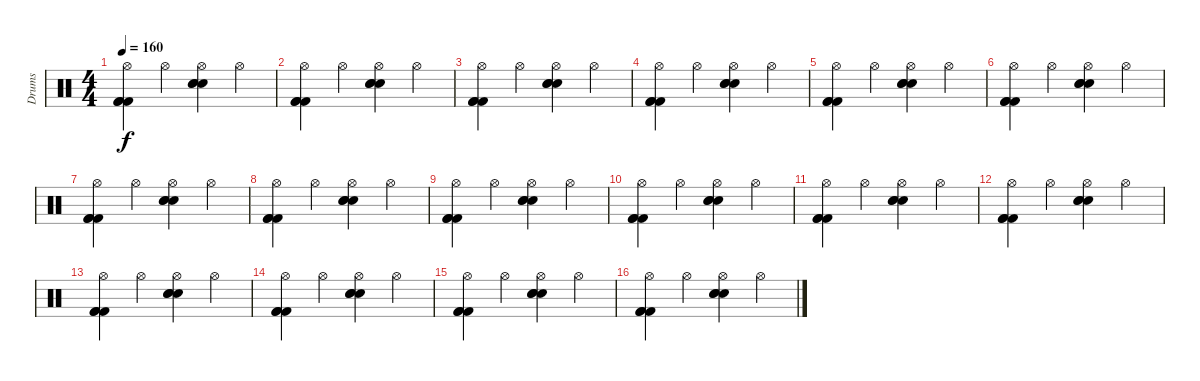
\track ("Drums" "Drums") {instrument percussion}
\staff {score}
\articulation defaults
\ts (4 4)
\tempo 160
\clef neutral
\ks c
("Hi-Hat (open)" "Kick (hit) 2" "Kick (hit) 2" "Kick (hit) 2").4{dy f} "Hi-Hat (open)".4 ("Hi-Hat (open)" "Electric Snare (hit)" "Electric Snare (hit)" "Electric Snare (hit)").4 "Hi-Hat (open)".4 |
("Hi-Hat (open)" "Kick (hit) 2" "Kick (hit) 2" "Kick (hit) 2").4 "Hi-Hat (open)".4 ("Hi-Hat (open)" "Electric Snare (hit)" "Electric Snare (hit)" "Electric Snare (hit)").4 "Hi-Hat (open)".4 |
("Hi-Hat (open)" "Kick (hit) 2" "Kick (hit) 2" "Kick (hit) 2").4 "Hi-Hat (open)".4 ("Hi-Hat (open)" "Electric Snare (hit)" "Electric Snare (hit)" "Electric Snare (hit)").4 "Hi-Hat (open)".4 |
("Hi-Hat (open)" "Kick (hit) 2" "Kick (hit) 2" "Kick (hit) 2").4 "Hi-Hat (open)".4 ("Hi-Hat (open)" "Electric Snare (hit)" "Electric Snare (hit)" "Electric Snare (hit)").4 "Hi-Hat (open)".4 |
("Hi-Hat (open)" "Kick (hit) 2" "Kick (hit) 2" "Kick (hit) 2").4 "Hi-Hat (open)".4 ("Hi-Hat (open)" "Electric Snare (hit)" "Electric Snare (hit)" "Electric Snare (hit)").4 "Hi-Hat (open)".4 |
("Hi-Hat (open)" "Kick (hit) 2" "Kick (hit) 2" "Kick (hit) 2").4 "Hi-Hat (open)".4 ("Hi-Hat (open)" "Electric Snare (hit)" "Electric Snare (hit)" "Electric Snare (hit)").4 "Hi-Hat (open)".4 |
("Hi-Hat (open)" "Kick (hit) 2" "Kick (hit) 2" "Kick (hit) 2").4 "Hi-Hat (open)".4 ("Hi-Hat (open)" "Electric Snare (hit)" "Electric Snare (hit)" "Electric Snare (hit)").4 "Hi-Hat (open)".4 |
("Hi-Hat (open)" "Kick (hit) 2" "Kick (hit) 2" "Kick (hit) 2").4 "Hi-Hat (open)".4 ("Hi-Hat (open)" "Electric Snare (hit)" "Electric Snare (hit)" "Electric Snare (hit)").4 "Hi-Hat (open)".4 |
("Hi-Hat (open)" "Kick (hit) 2" "Kick (hit) 2" "Kick (hit) 2").4 "Hi-Hat (open)".4 ("Hi-Hat (open)" "Electric Snare (hit)" "Electric Snare (hit)" "Electric Snare (hit)").4 "Hi-Hat (open)".4 |
("Hi-Hat (open)" "Kick (hit) 2" "Kick (hit) 2" "Kick (hit) 2").4 "Hi-Hat (open)".4 ("Hi-Hat (open)" "Electric Snare (hit)" "Electric Snare (hit)" "Electric Snare (hit)").4 "Hi-Hat (open)".4 |
("Hi-Hat (open)" "Kick (hit) 2" "Kick (hit) 2" "Kick (hit) 2").4 "Hi-Hat (open)".4 ("Hi-Hat (open)" "Electric Snare (hit)" "Electric Snare (hit)" "Electric Snare (hit)").4 "Hi-Hat (open)".4 |
("Hi-Hat (open)" "Kick (hit) 2" "Kick (hit) 2" "Kick (hit) 2").4 "Hi-Hat (open)".4 ("Hi-Hat (open)" "Electric Snare (hit)" "Electric Snare (hit)" "Electric Snare (hit)").4 "Hi-Hat (open)".4 |
("Hi-Hat (open)" "Kick (hit) 2" "Kick (hit) 2" "Kick (hit) 2").4 "Hi-Hat (open)".4 ("Hi-Hat (open)" "Electric Snare (hit)" "Electric Snare (hit)" "Electric Snare (hit)").4 "Hi-Hat (open)".4 |
("Hi-Hat (open)" "Kick (hit) 2" "Kick (hit) 2" "Kick (hit) 2").4 "Hi-Hat (open)".4 ("Hi-Hat (open)" "Electric Snare (hit)" "Electric Snare (hit)" "Electric Snare (hit)").4 "Hi-Hat (open)".4 |
("Hi-Hat (open)" "Kick (hit) 2" "Kick (hit) 2" "Kick (hit) 2").4 "Hi-Hat (open)".4 ("Hi-Hat (open)" "Electric Snare (hit)" "Electric Snare (hit)" "Electric Snare (hit)").4 "Hi-Hat (open)".4 |
("Hi-Hat (open)" "Kick (hit) 2" "Kick (hit) 2" "Kick (hit) 2").4 "Hi-Hat (open)".4 ("Hi-Hat (open)" "Electric Snare (hit)" "Electric Snare (hit)" "Electric Snare (hit)").4 "Hi-Hat (open)".4
